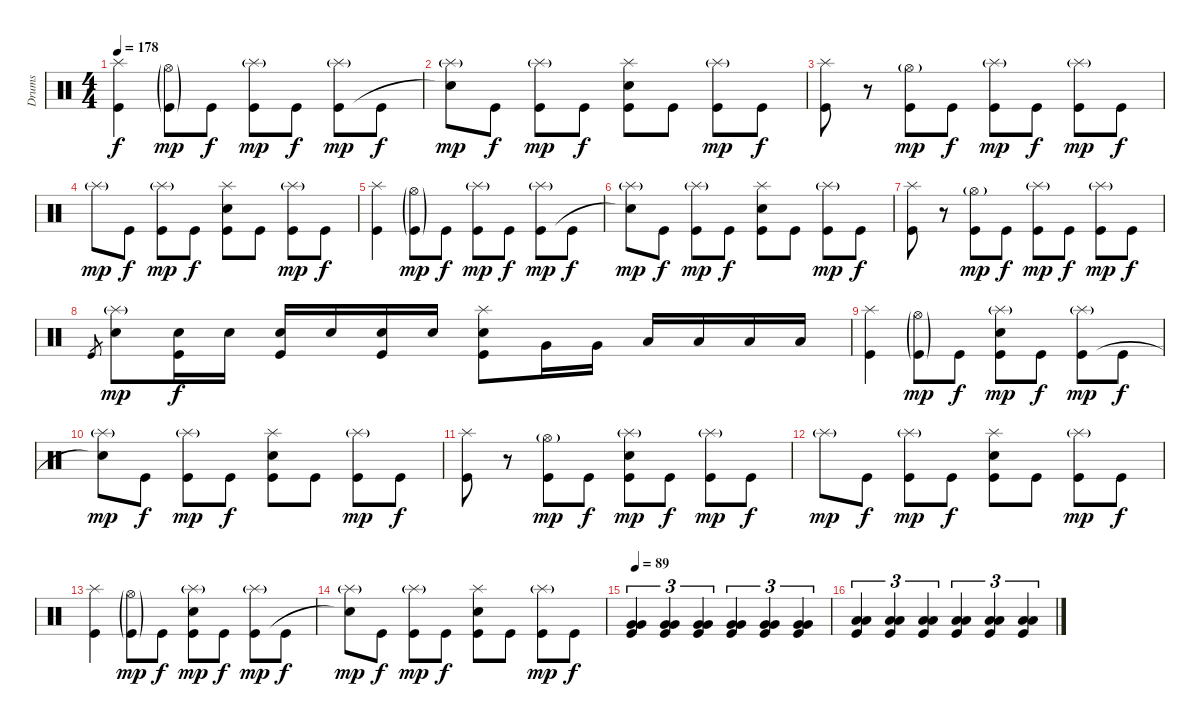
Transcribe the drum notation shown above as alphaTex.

\track ("Drums" "Drums") {instrument percussion}
\staff {score}
\articulation defaults
\ts (4 4)
\tempo 178
\clef neutral
\ks c
("Splash (hit)" "Kick (hit)").4{dy f} ("Hi-Hat (open)"{g} "Kick (hit)"{g}).8{dy mp} "Kick (hit)".8{dy f} ("Splash (hit)"{g} "Kick (hit)").8{dy mp} "Kick (hit)".8{dy f} ("Splash (hit)"{g} "Kick (hit)").8{dy mp} "Kick (hit)".8{dy f} |
("Splash (hit)"{g} "Snare (hit)"{t}).8{dy mp} "Kick (hit)".8{dy f} ("Splash (hit)"{g} "Kick (hit)").8{dy mp} "Kick (hit)".8{dy f} ("Splash (hit)" "Snare (hit) 2" "Kick (hit)").8 "Kick (hit)".8 ("Splash (hit)"{g} "Kick (hit)").8{dy mp} "Kick (hit)".8{dy f} |
("Splash (hit)" "Kick (hit)").8 r.8 ("Hi-Hat (open)"{g} "Kick (hit)").8{dy mp} "Kick (hit)".8{dy f} ("Splash (hit)"{g} "Kick (hit)").8{dy mp} "Kick (hit)".8{dy f} ("Splash (hit)"{g} "Kick (hit)").8{dy mp} "Kick (hit)".8{dy f} |
"Splash (hit)"{g}.8{dy mp} "Kick (hit)".8{dy f} ("Splash (hit)"{g} "Kick (hit)").8{dy mp} "Kick (hit)".8{dy f} ("Splash (hit)" "Snare (hit) 2" "Kick (hit)").8 "Kick (hit)".8 ("Splash (hit)"{g} "Kick (hit)").8{dy mp} "Kick (hit)".8{dy f} |
("Splash (hit)" "Kick (hit)").4 ("Hi-Hat (open)"{g} "Kick (hit)"{g}).8{dy mp} "Kick (hit)".8{dy f} ("Splash (hit)"{g} "Kick (hit)").8{dy mp} "Kick (hit)".8{dy f} ("Splash (hit)"{g} "Kick (hit)").8{dy mp} "Kick (hit)".8{dy f} |
("Splash (hit)"{g} "Snare (hit)"{t}).8{dy mp} "Kick (hit)".8{dy f} ("Splash (hit)"{g} "Kick (hit)").8{dy mp} "Kick (hit)".8{dy f} ("Splash (hit)" "Snare (hit) 2" "Kick (hit)").8 "Kick (hit)".8 ("Splash (hit)"{g} "Kick (hit)").8{dy mp} "Kick (hit)".8{dy f} |
("Splash (hit)" "Kick (hit)").8 r.8 ("Hi-Hat (open)"{g} "Kick (hit)").8{dy mp} "Kick (hit)".8{dy f} ("Splash (hit)"{g} "Kick (hit)").8{dy mp} "Kick (hit)".8{dy f} ("Splash (hit)"{g} "Kick (hit)").8{dy mp} "Kick (hit)".8{dy f} |
"Kick (hit)".8{gr} ("Splash (hit)"{g} "Snare (hit) 2").8{dy mp} ("Snare (hit) 2" "Kick (hit)").16{dy f} "Snare (hit) 2".16 ("Snare (hit) 2" "Kick (hit)").16 "Snare (hit) 2".16 ("Snare (hit) 2" "Kick (hit)").16 "Snare (hit) 2".16 ("Splash (hit)" "Snare (hit) 2" "Kick (hit)").8 "Very Low Tom (hit)".16 "Very Low Tom (hit)".16 "Low Tom (hit)".16 "Low Tom (hit)".16 "Low Floor Tom (hit)".16 "Low Floor Tom (hit)".16 |
("Splash (hit)" "Kick (hit)").4 ("Hi-Hat (open)"{g} "Kick (hit)"{g}).8{dy mp} "Kick (hit)".8{dy f} ("Splash (hit)"{g} "Snare (hit) 2" "Kick (hit)").8{dy mp} "Kick (hit)".8{dy f} ("Splash (hit)"{g} "Kick (hit)").8{dy mp} "Kick (hit)".8{dy f} |
("Splash (hit)"{g} "Snare (hit)"{t}).8{dy mp} "Kick (hit)".8{dy f} ("Splash (hit)"{g} "Kick (hit)").8{dy mp} "Kick (hit)".8{dy f} ("Splash (hit)" "Snare (hit) 2" "Kick (hit)").8 "Kick (hit)".8 ("Splash (hit)"{g} "Kick (hit)").8{dy mp} "Kick (hit)".8{dy f} |
("Splash (hit)" "Kick (hit)").8 r.8 ("Hi-Hat (open)"{g} "Kick (hit)").8{dy mp} "Kick (hit)".8{dy f} ("Splash (hit)"{g} "Snare (hit) 2" "Kick (hit)").8{dy mp} "Kick (hit)".8{dy f} ("Splash (hit)"{g} "Kick (hit)").8{dy mp} "Kick (hit)".8{dy f} |
"Splash (hit)"{g}.8{dy mp} "Kick (hit)".8{dy f} ("Splash (hit)"{g} "Kick (hit)").8{dy mp} "Kick (hit)".8{dy f} ("Splash (hit)" "Snare (hit) 2" "Kick (hit)").8 "Kick (hit)".8 ("Splash (hit)"{g} "Kick (hit)").8{dy mp} "Kick (hit)".8{dy f} |
("Splash (hit)" "Kick (hit)").4 ("Hi-Hat (open)"{g} "Kick (hit)"{g}).8{dy mp} "Kick (hit)".8{dy f} ("Splash (hit)"{g} "Snare (hit) 2" "Kick (hit)").8{dy mp} "Kick (hit)".8{dy f} ("Splash (hit)"{g} "Kick (hit)").8{dy mp} "Kick (hit)".8{dy f} |
("Splash (hit)"{g} "Snare (hit)"{t}).8{dy mp} "Kick (hit)".8{dy f} ("Splash (hit)"{g} "Kick (hit)").8{dy mp} "Kick (hit)".8{dy f} ("Splash (hit)" "Snare (hit) 2" "Kick (hit)").8 "Kick (hit)".8 ("Splash (hit)"{g} "Kick (hit)").8{dy mp} "Kick (hit)".8{dy f} |
\tempo 89
("Very Low Tom (hit)" "Very Low Tom (hit)" "Kick (hit)").4{tu (3 2)} ("Very Low Tom (hit)" "Very Low Tom (hit)" "Kick (hit)").4{tu (3 2)} ("Very Low Tom (hit)" "Very Low Tom (hit)" "Kick (hit)").4{tu (3 2)} ("Very Low Tom (hit)" "Very Low Tom (hit)" "Kick (hit)").4{tu (3 2)} ("Very Low Tom (hit)" "Very Low Tom (hit)" "Kick (hit)").4{tu (3 2)} ("Very Low Tom (hit)" "Very Low Tom (hit)" "Kick (hit)").4{tu (3 2)} |
("Low Floor Tom (hit)" "Low Floor Tom (hit)" "Kick (hit)").4{tu (3 2)} ("Low Floor Tom (hit)" "Low Floor Tom (hit)" "Kick (hit)").4{tu (3 2)} ("Low Floor Tom (hit)" "Low Floor Tom (hit)" "Kick (hit)").4{tu (3 2)} ("Low Floor Tom (hit)" "Low Floor Tom (hit)" "Kick (hit)").4{tu (3 2)} ("Low Floor Tom (hit)" "Low Floor Tom (hit)" "Kick (hit)").4{tu (3 2)} ("Low Floor Tom (hit)" "Low Floor Tom (hit)" "Kick (hit)").4{tu (3 2)}
